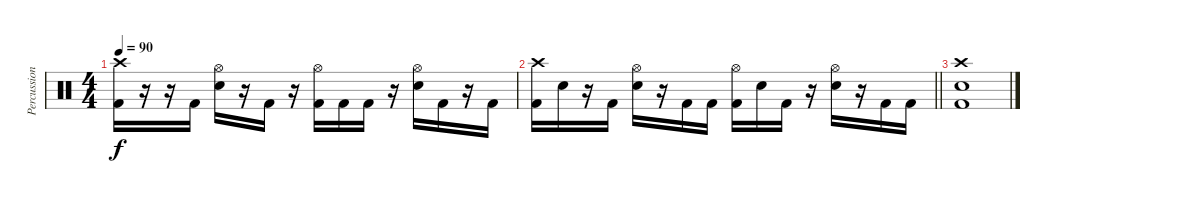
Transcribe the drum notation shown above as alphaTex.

\track ("Percussion" "Percussion") {instrument percussion}
\staff {score}
\articulation defaults
\ts (4 4)
\tempo 90
\clef neutral
\ks c
("Crash high (hit)" "Kick (hit) 2").16{dy f} r.16 r.16 "Kick (hit) 2".16 ("Hi-Hat (open)" "Snare (hit) 2").16 r.16 "Kick (hit) 2".16 r.16 ("Hi-Hat (open)" "Kick (hit) 2").16 "Kick (hit) 2".16 "Kick (hit) 2".16 r.16 ("Hi-Hat (open)" "Snare (hit) 2").16 "Kick (hit) 2".16 r.16 "Kick (hit) 2".16 |
\barLineRight lightlight
("Crash high (hit)" "Kick (hit) 2").16 "Snare (hit) 2".16 r.16 "Kick (hit) 2".16 ("Hi-Hat (open)" "Snare (hit) 2").16 r.16 "Kick (hit) 2".16 "Kick (hit) 2".16 ("Hi-Hat (open)" "Kick (hit) 2").16 "Snare (hit) 2".16 "Kick (hit) 2".16 r.16 ("Hi-Hat (open)" "Snare (hit) 2").16 r.16 "Kick (hit) 2".16 "Kick (hit) 2".16 |
("Crash high (hit)" "Snare (hit) 2" "Kick (hit) 2").1
